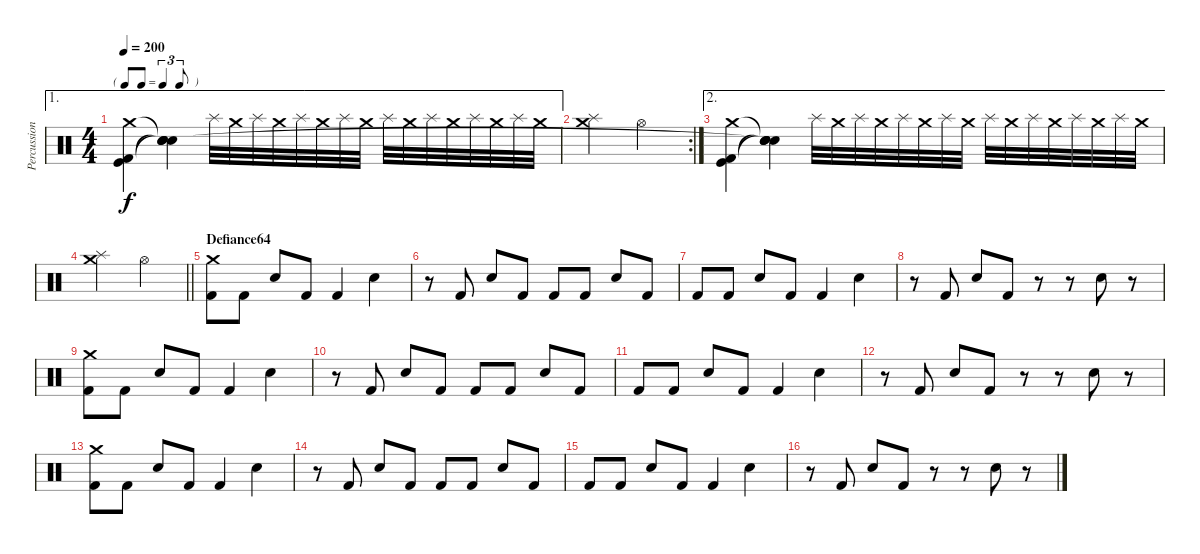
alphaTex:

\track ("Percussion" "Percussion") {instrument percussion}
\staff {score}
\articulation defaults
\ae 1
\ts (4 4)
\tf triplet8th
\tempo 200
\clef neutral
\ks c
("Crash medium (hit)" "Kick (hit) 2" "Kick (hit)").4{dy f} ("Snare (hit)"{t} "Snare (hit)"{t} "Snare (hit)"{t} "Snare (hit)"{t}).4 "Splash (hit)".32{volume 4} "Crash medium (hit)".32{volume 16} "Splash (hit)".32 "Crash medium (hit)".32 "Splash (hit)".32 "Crash medium (hit)".32 "Splash (hit)".32 "Crash medium (hit)".32 "Splash (hit)".32 "Crash medium (hit)".32 "Splash (hit)".32 "Crash medium (hit)".32 "Splash (hit)".32 "Crash medium (hit)".32 "Splash (hit)".32 "Crash medium (hit)".32 |
\rc 2
("Crash medium (hit)" "Splash (hit)").2{volume 16} "Hi-Hat (open)".2 |
\ae 2
("Crash medium (hit)" "Kick (hit) 2" "Kick (hit)").4 ("Snare (hit)"{t} "Snare (hit)"{t} "Snare (hit)"{t} "Snare (hit)"{t}).4 "Splash (hit)".32{volume 4} "Crash medium (hit)".32{volume 16} "Splash (hit)".32 "Crash medium (hit)".32 "Splash (hit)".32 "Crash medium (hit)".32 "Splash (hit)".32 "Crash medium (hit)".32 "Splash (hit)".32 "Crash medium (hit)".32 "Splash (hit)".32 "Crash medium (hit)".32 "Splash (hit)".32 "Crash medium (hit)".32 "Splash (hit)".32 "Crash medium (hit)".32 |
\barLineRight lightlight
("Crash medium (hit)" "Splash (hit)").2{volume 16} "Hi-Hat (open)".2 |
\section ("" "Defiance64")
("Kick (hit) 2" "Crash medium (hit)").8{volume 16 balance 8} "Kick (hit) 2".8 "Electric Snare (hit)".8 "Kick (hit) 2".8 "Kick (hit) 2".4 "Electric Snare (hit)".4 |
r.8 "Kick (hit) 2".8 "Electric Snare (hit)".8 "Kick (hit) 2".8 "Kick (hit) 2".8 "Kick (hit) 2".8 "Electric Snare (hit)".8 "Kick (hit) 2".8 |
"Kick (hit) 2".8 "Kick (hit) 2".8 "Electric Snare (hit)".8 "Kick (hit) 2".8 "Kick (hit) 2".4 "Electric Snare (hit)".4 |
r.8 "Kick (hit) 2".8 "Electric Snare (hit)".8 "Kick (hit) 2".8 r.8 r.8 "Electric Snare (hit)".8 r.8 |
("Kick (hit) 2" "Crash medium (hit)").8 "Kick (hit) 2".8 "Electric Snare (hit)".8 "Kick (hit) 2".8 "Kick (hit) 2".4 "Electric Snare (hit)".4 |
r.8 "Kick (hit) 2".8 "Electric Snare (hit)".8 "Kick (hit) 2".8 "Kick (hit) 2".8 "Kick (hit) 2".8 "Electric Snare (hit)".8 "Kick (hit) 2".8 |
"Kick (hit) 2".8 "Kick (hit) 2".8 "Electric Snare (hit)".8 "Kick (hit) 2".8 "Kick (hit) 2".4 "Electric Snare (hit)".4 |
r.8 "Kick (hit) 2".8 "Electric Snare (hit)".8 "Kick (hit) 2".8 r.8 r.8 "Electric Snare (hit)".8 r.8 |
("Kick (hit) 2" "Crash medium (hit)").8 "Kick (hit) 2".8 "Electric Snare (hit)".8 "Kick (hit) 2".8 "Kick (hit) 2".4 "Electric Snare (hit)".4 |
r.8 "Kick (hit) 2".8 "Electric Snare (hit)".8 "Kick (hit) 2".8 "Kick (hit) 2".8 "Kick (hit) 2".8 "Electric Snare (hit)".8 "Kick (hit) 2".8 |
"Kick (hit) 2".8 "Kick (hit) 2".8 "Electric Snare (hit)".8 "Kick (hit) 2".8 "Kick (hit) 2".4 "Electric Snare (hit)".4 |
r.8 "Kick (hit) 2".8 "Electric Snare (hit)".8 "Kick (hit) 2".8 r.8 r.8 "Electric Snare (hit)".8 r.8
